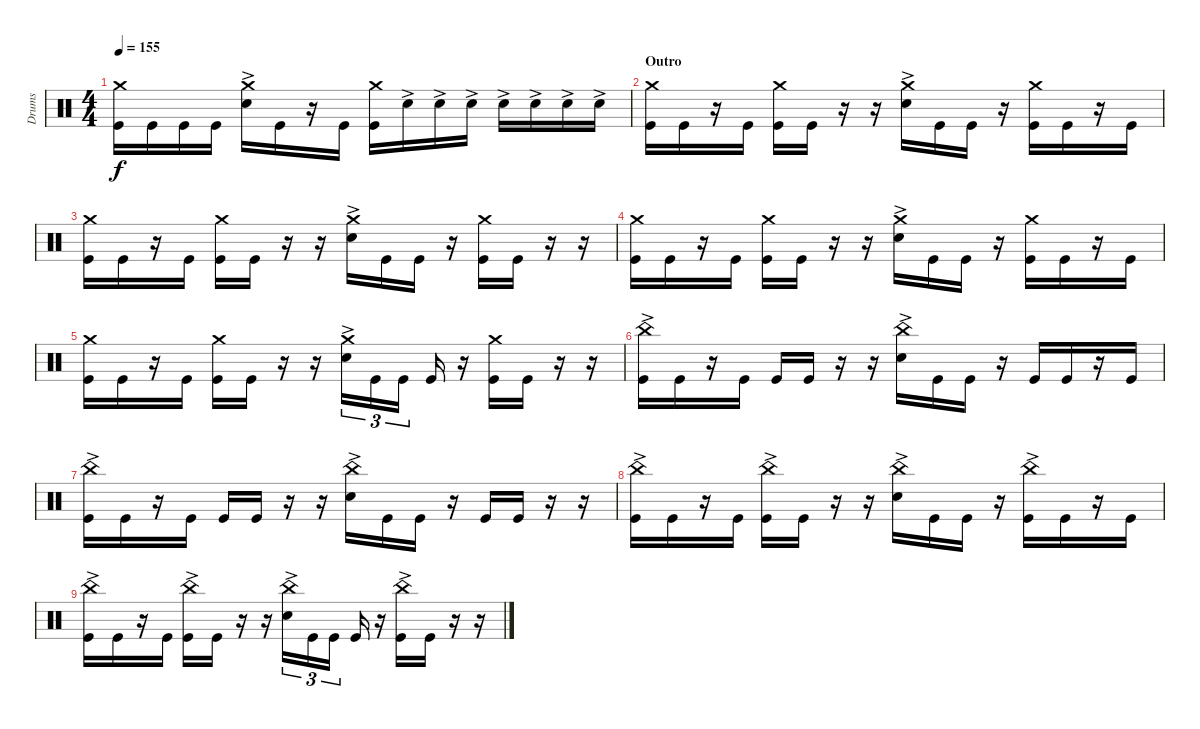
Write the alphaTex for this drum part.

\track ("Drums" "Drums") {instrument percussion}
\staff {score}
\articulation defaults
\ts (4 4)
\tempo 155
\clef neutral
\ks c
("Crash medium (hit)" "Kick (hit)").16{dy f} "Kick (hit)".16 "Kick (hit)".16 "Kick (hit)".16 ("Crash medium (hit)" "Snare (hit) 2"{ac}).16 "Kick (hit)".16 r.16 "Kick (hit)".16 ("Kick (hit)" "Crash medium (hit)").16 "Snare (hit) 2"{ac}.16 "Snare (hit) 2"{ac}.16 "Snare (hit) 2"{ac}.16 "Snare (hit) 2"{ac}.16 "Snare (hit) 2"{ac}.16 "Snare (hit) 2"{ac}.16 "Snare (hit) 2"{ac}.16 |
\section ("" "Outro")
("Crash medium (hit)" "Kick (hit)").16 "Kick (hit)".16 r.16 "Kick (hit)".16 ("Crash medium (hit)" "Kick (hit)").16 "Kick (hit)".16 r.16 r.16 ("Crash medium (hit)" "Snare (hit) 2"{ac}).16 "Kick (hit)".16 "Kick (hit)".16 r.16 ("Crash medium (hit)" "Kick (hit)").16 "Kick (hit)".16 r.16 "Kick (hit)".16 |
("Crash medium (hit)" "Kick (hit)").16 "Kick (hit)".16 r.16 "Kick (hit)".16 ("Crash medium (hit)" "Kick (hit)").16 "Kick (hit)".16 r.16 r.16 ("Crash medium (hit)" "Snare (hit) 2"{ac}).16 "Kick (hit)".16 "Kick (hit)".16 r.16 ("Crash medium (hit)" "Kick (hit)").16 "Kick (hit)".16 r.16 r.16 |
("Crash medium (hit)" "Kick (hit)").16 "Kick (hit)".16 r.16 "Kick (hit)".16 ("Crash medium (hit)" "Kick (hit)").16 "Kick (hit)".16 r.16 r.16 ("Crash medium (hit)" "Snare (hit) 2"{ac}).16 "Kick (hit)".16 "Kick (hit)".16 r.16 ("Crash medium (hit)" "Kick (hit)").16 "Kick (hit)".16 r.16 "Kick (hit)".16 |
("Crash medium (hit)" "Kick (hit)").16 "Kick (hit)".16 r.16 "Kick (hit)".16 ("Crash medium (hit)" "Kick (hit)").16 "Kick (hit)".16 r.16 r.16 ("Crash medium (hit)" "Snare (hit) 2"{ac}).16{tu (3 2)} "Kick (hit)".16{tu (3 2)} "Kick (hit)".16{tu (3 2)} "Kick (hit)".16 r.16 ("Kick (hit)" "Crash medium (hit)").16 "Kick (hit)".16 r.16 r.16 |
("Kick (hit)" "China (hit)"{ac}).16 "Kick (hit)".16 r.16 "Kick (hit)".16 "Kick (hit)".16 "Kick (hit)".16 r.16 r.16 ("Snare (hit) 2"{ac} "China (hit)"{ac}).16 "Kick (hit)".16 "Kick (hit)".16 r.16 "Kick (hit)".16 "Kick (hit)".16 r.16 "Kick (hit)".16 |
("Kick (hit)" "China (hit)"{ac}).16 "Kick (hit)".16 r.16 "Kick (hit)".16 "Kick (hit)".16 "Kick (hit)".16 r.16 r.16 ("Snare (hit) 2"{ac} "China (hit)"{ac}).16 "Kick (hit)".16 "Kick (hit)".16 r.16 "Kick (hit)".16 "Kick (hit)".16 r.16 r.16 |
("Kick (hit)" "China (hit)"{ac}).16 "Kick (hit)".16 r.16 "Kick (hit)".16 ("Kick (hit)" "China (hit)"{ac}).16 "Kick (hit)".16 r.16 r.16 ("Snare (hit) 2"{ac} "China (hit)"{ac}).16 "Kick (hit)".16 "Kick (hit)".16 r.16 ("Kick (hit)" "China (hit)"{ac}).16 "Kick (hit)".16 r.16 "Kick (hit)".16 |
("Kick (hit)" "China (hit)"{ac}).16 "Kick (hit)".16 r.16 "Kick (hit)".16 ("Kick (hit)" "China (hit)"{ac}).16 "Kick (hit)".16 r.16 r.16 ("Snare (hit) 2"{ac} "China (hit)"{ac}).16{tu (3 2)} "Kick (hit)".16{tu (3 2)} "Kick (hit)".16{tu (3 2)} "Kick (hit)".16 r.16 ("Kick (hit)" "China (hit)"{ac}).16 "Kick (hit)".16 r.16 r.16
